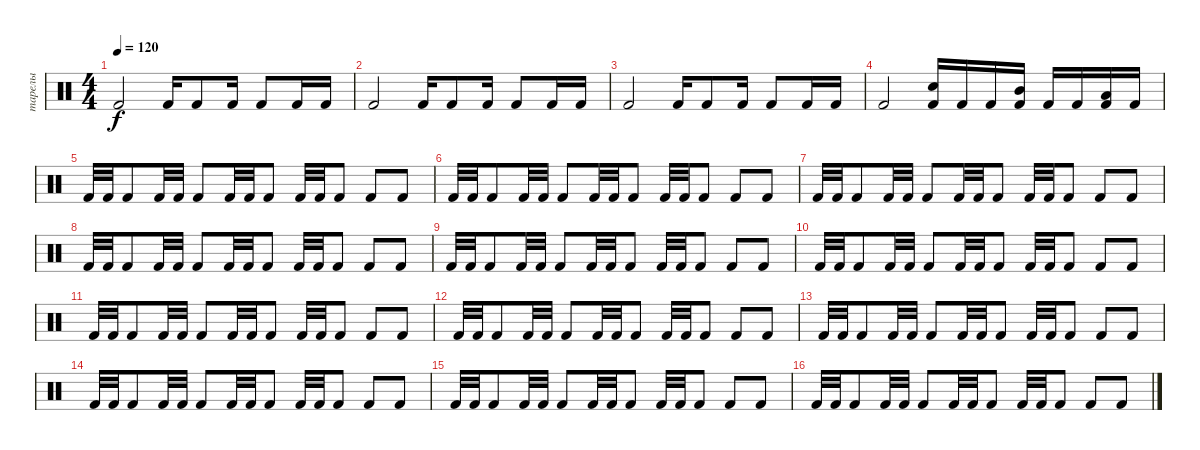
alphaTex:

\track ("тарелы" "тарелы") {instrument percussion}
\staff {score}
\articulation defaults
\ts (4 4)
\tempo 120
\clef neutral
\ks c "Kick (hit) 2".2{dy f} "Kick (hit) 2".16 "Kick (hit) 2".8 "Kick (hit) 2".16 "Kick (hit) 2".8 "Kick (hit) 2".16 "Kick (hit) 2".16
|
"Kick (hit) 2".2 "Kick (hit) 2".16 "Kick (hit) 2".8 "Kick (hit) 2".16 "Kick (hit) 2".8 "Kick (hit) 2".16 "Kick (hit) 2".16 |
"Kick (hit) 2".2 "Kick (hit) 2".16 "Kick (hit) 2".8 "Kick (hit) 2".16 "Kick (hit) 2".8 "Kick (hit) 2".16 "Kick (hit) 2".16 |
"Kick (hit) 2".2 ("Snare (hit) 2" "Kick (hit) 2").16 "Kick (hit) 2".16 "Kick (hit) 2".16 ("Mid Tom (hit)" "Kick (hit) 2").16 "Kick (hit) 2".16 "Kick (hit) 2".16 ("Low Floor Tom (hit)" "Kick (hit) 2").16 "Kick (hit) 2".16 |
"Kick (hit) 2".32 "Kick (hit) 2".32 "Kick (hit) 2".8 "Kick (hit) 2".32 "Kick (hit) 2".32 "Kick (hit) 2".8 "Kick (hit) 2".32 "Kick (hit) 2".32 "Kick (hit) 2".8 "Kick (hit) 2".32 "Kick (hit) 2".32 "Kick (hit) 2".8 "Kick (hit) 2".8 "Kick (hit) 2".8 |
"Kick (hit) 2".32 "Kick (hit) 2".32 "Kick (hit) 2".8 "Kick (hit) 2".32 "Kick (hit) 2".32 "Kick (hit) 2".8 "Kick (hit) 2".32 "Kick (hit) 2".32 "Kick (hit) 2".8 "Kick (hit) 2".32 "Kick (hit) 2".32 "Kick (hit) 2".8 "Kick (hit) 2".8 "Kick (hit) 2".8 |
"Kick (hit) 2".32 "Kick (hit) 2".32 "Kick (hit) 2".8 "Kick (hit) 2".32 "Kick (hit) 2".32 "Kick (hit) 2".8 "Kick (hit) 2".32 "Kick (hit) 2".32 "Kick (hit) 2".8 "Kick (hit) 2".32 "Kick (hit) 2".32 "Kick (hit) 2".8 "Kick (hit) 2".8 "Kick (hit) 2".8 |
"Kick (hit) 2".32 "Kick (hit) 2".32 "Kick (hit) 2".8 "Kick (hit) 2".32 "Kick (hit) 2".32 "Kick (hit) 2".8 "Kick (hit) 2".32 "Kick (hit) 2".32 "Kick (hit) 2".8 "Kick (hit) 2".32 "Kick (hit) 2".32 "Kick (hit) 2".8 "Kick (hit) 2".8 "Kick (hit) 2".8 |
"Kick (hit) 2".32 "Kick (hit) 2".32 "Kick (hit) 2".8 "Kick (hit) 2".32 "Kick (hit) 2".32 "Kick (hit) 2".8 "Kick (hit) 2".32 "Kick (hit) 2".32 "Kick (hit) 2".8 "Kick (hit) 2".32 "Kick (hit) 2".32 "Kick (hit) 2".8 "Kick (hit) 2".8 "Kick (hit) 2".8 |
"Kick (hit) 2".32 "Kick (hit) 2".32 "Kick (hit) 2".8 "Kick (hit) 2".32 "Kick (hit) 2".32 "Kick (hit) 2".8 "Kick (hit) 2".32 "Kick (hit) 2".32 "Kick (hit) 2".8 "Kick (hit) 2".32 "Kick (hit) 2".32 "Kick (hit) 2".8 "Kick (hit) 2".8 "Kick (hit) 2".8 |
"Kick (hit) 2".32 "Kick (hit) 2".32 "Kick (hit) 2".8 "Kick (hit) 2".32 "Kick (hit) 2".32 "Kick (hit) 2".8 "Kick (hit) 2".32 "Kick (hit) 2".32 "Kick (hit) 2".8 "Kick (hit) 2".32 "Kick (hit) 2".32 "Kick (hit) 2".8 "Kick (hit) 2".8 "Kick (hit) 2".8 |
"Kick (hit) 2".32 "Kick (hit) 2".32 "Kick (hit) 2".8 "Kick (hit) 2".32 "Kick (hit) 2".32 "Kick (hit) 2".8 "Kick (hit) 2".32 "Kick (hit) 2".32 "Kick (hit) 2".8 "Kick (hit) 2".32 "Kick (hit) 2".32 "Kick (hit) 2".8 "Kick (hit) 2".8 "Kick (hit) 2".8 |
"Kick (hit) 2".32 "Kick (hit) 2".32 "Kick (hit) 2".8 "Kick (hit) 2".32 "Kick (hit) 2".32 "Kick (hit) 2".8 "Kick (hit) 2".32 "Kick (hit) 2".32 "Kick (hit) 2".8 "Kick (hit) 2".32 "Kick (hit) 2".32 "Kick (hit) 2".8 "Kick (hit) 2".8 "Kick (hit) 2".8 |
"Kick (hit) 2".32 "Kick (hit) 2".32 "Kick (hit) 2".8 "Kick (hit) 2".32 "Kick (hit) 2".32 "Kick (hit) 2".8 "Kick (hit) 2".32 "Kick (hit) 2".32 "Kick (hit) 2".8 "Kick (hit) 2".32 "Kick (hit) 2".32 "Kick (hit) 2".8 "Kick (hit) 2".8 "Kick (hit) 2".8 |
"Kick (hit) 2".32 "Kick (hit) 2".32 "Kick (hit) 2".8 "Kick (hit) 2".32 "Kick (hit) 2".32 "Kick (hit) 2".8 "Kick (hit) 2".32 "Kick (hit) 2".32 "Kick (hit) 2".8 "Kick (hit) 2".32 "Kick (hit) 2".32 "Kick (hit) 2".8 "Kick (hit) 2".8 "Kick (hit) 2".8 |
"Kick (hit) 2".32 "Kick (hit) 2".32 "Kick (hit) 2".8 "Kick (hit) 2".32 "Kick (hit) 2".32 "Kick (hit) 2".8 "Kick (hit) 2".32 "Kick (hit) 2".32 "Kick (hit) 2".8 "Kick (hit) 2".32 "Kick (hit) 2".32 "Kick (hit) 2".8 "Kick (hit) 2".8 "Kick (hit) 2".8
